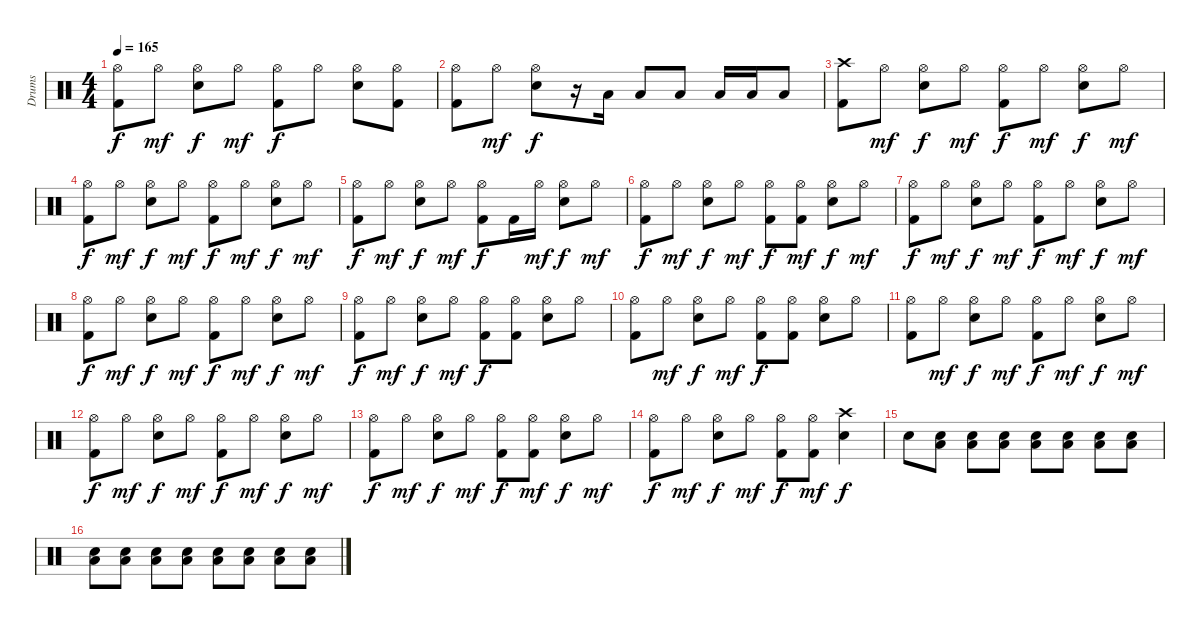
\track ("Drums" "Drums") {instrument percussion}
\staff {score}
\articulation defaults
\ts (4 4)
\tempo 165
\clef neutral
\ks c
("Hi-Hat (open)" "Kick (hit) 2").8{dy f} "Hi-Hat (open)".8{dy mf} ("Hi-Hat (open)" "Electric Snare (hit)").8{dy f} "Hi-Hat (open)".8{dy mf} ("Hi-Hat (open)" "Kick (hit) 2").8{dy f} "Hi-Hat (open)".8 ("Hi-Hat (open)" "Electric Snare (hit)").8 ("Hi-Hat (open)" "Kick (hit) 2").8 |
("Hi-Hat (open)" "Kick (hit) 2").8 "Hi-Hat (open)".8{dy mf} ("Hi-Hat (open)" "Electric Snare (hit)").8{dy f} r.16 "Low Floor Tom (hit)".16 "Low Floor Tom (hit)".8 "Low Floor Tom (hit)".8 "Low Floor Tom (hit)".16 "Low Floor Tom (hit)".16 "Low Floor Tom (hit)".8 |
("Crash high (hit)" "Kick (hit) 2").8 "Hi-Hat (open)".8{dy mf} ("Hi-Hat (open)" "Electric Snare (hit)").8{dy f} "Hi-Hat (open)".8{dy mf} ("Hi-Hat (open)" "Kick (hit) 2").8{dy f} "Hi-Hat (open)".8{dy mf} ("Hi-Hat (open)" "Electric Snare (hit)").8{dy f} "Hi-Hat (open)".8{dy mf} |
("Hi-Hat (open)" "Kick (hit) 2").8{dy f} "Hi-Hat (open)".8{dy mf} ("Hi-Hat (open)" "Electric Snare (hit)").8{dy f} "Hi-Hat (open)".8{dy mf} ("Hi-Hat (open)" "Kick (hit) 2").8{dy f} "Hi-Hat (open)".8{dy mf} ("Hi-Hat (open)" "Electric Snare (hit)").8{dy f} "Hi-Hat (open)".8{dy mf} |
("Hi-Hat (open)" "Kick (hit) 2").8{dy f} "Hi-Hat (open)".8{dy mf} ("Hi-Hat (open)" "Electric Snare (hit)").8{dy f} "Hi-Hat (open)".8{dy mf} ("Hi-Hat (open)" "Kick (hit) 2").8{dy f} "Kick (hit) 2".16 "Hi-Hat (open)".16{dy mf} ("Hi-Hat (open)" "Electric Snare (hit)").8{dy f} "Hi-Hat (open)".8{dy mf} |
("Hi-Hat (open)" "Kick (hit) 2").8{dy f} "Hi-Hat (open)".8{dy mf} ("Hi-Hat (open)" "Electric Snare (hit)").8{dy f} "Hi-Hat (open)".8{dy mf} ("Hi-Hat (open)" "Kick (hit) 2").8{dy f} ("Hi-Hat (open)" "Kick (hit) 2").8{dy mf} ("Hi-Hat (open)" "Electric Snare (hit)").8{dy f} "Hi-Hat (open)".8{dy mf} |
("Hi-Hat (open)" "Kick (hit) 2").8{dy f} "Hi-Hat (open)".8{dy mf} ("Hi-Hat (open)" "Electric Snare (hit)").8{dy f} "Hi-Hat (open)".8{dy mf} ("Hi-Hat (open)" "Kick (hit) 2").8{dy f} "Hi-Hat (open)".8{dy mf} ("Hi-Hat (open)" "Electric Snare (hit)").8{dy f} "Hi-Hat (open)".8{dy mf} |
("Hi-Hat (open)" "Kick (hit) 2").8{dy f} "Hi-Hat (open)".8{dy mf} ("Hi-Hat (open)" "Electric Snare (hit)").8{dy f} "Hi-Hat (open)".8{dy mf} ("Hi-Hat (open)" "Kick (hit) 2").8{dy f} "Hi-Hat (open)".8{dy mf} ("Hi-Hat (open)" "Electric Snare (hit)").8{dy f} "Hi-Hat (open)".8{dy mf} |
("Hi-Hat (open)" "Kick (hit) 2").8{dy f} "Hi-Hat (open)".8{dy mf} ("Hi-Hat (open)" "Electric Snare (hit)").8{dy f} "Hi-Hat (open)".8{dy mf} ("Hi-Hat (open)" "Kick (hit) 2").8{dy f} ("Hi-Hat (open)" "Kick (hit) 2").8 ("Hi-Hat (open)" "Electric Snare (hit)").8 "Hi-Hat (open)".8 |
("Hi-Hat (open)" "Kick (hit) 2").8 "Hi-Hat (open)".8{dy mf} ("Hi-Hat (open)" "Electric Snare (hit)").8{dy f} "Hi-Hat (open)".8{dy mf} ("Hi-Hat (open)" "Kick (hit) 2").8{dy f} ("Hi-Hat (open)" "Kick (hit) 2").8 ("Hi-Hat (open)" "Electric Snare (hit)").8 "Hi-Hat (open)".8 |
("Hi-Hat (open)" "Kick (hit) 2").8 "Hi-Hat (open)".8{dy mf} ("Hi-Hat (open)" "Electric Snare (hit)").8{dy f} "Hi-Hat (open)".8{dy mf} ("Hi-Hat (open)" "Kick (hit) 2").8{dy f} "Hi-Hat (open)".8{dy mf} ("Hi-Hat (open)" "Electric Snare (hit)").8{dy f} "Hi-Hat (open)".8{dy mf} |
("Hi-Hat (open)" "Kick (hit) 2").8{dy f} "Hi-Hat (open)".8{dy mf} ("Hi-Hat (open)" "Electric Snare (hit)").8{dy f} "Hi-Hat (open)".8{dy mf} ("Hi-Hat (open)" "Kick (hit) 2").8{dy f} "Hi-Hat (open)".8{dy mf} ("Hi-Hat (open)" "Electric Snare (hit)").8{dy f} "Hi-Hat (open)".8{dy mf} |
("Hi-Hat (open)" "Kick (hit) 2").8{dy f} "Hi-Hat (open)".8{dy mf} ("Hi-Hat (open)" "Electric Snare (hit)").8{dy f} "Hi-Hat (open)".8{dy mf} ("Hi-Hat (open)" "Kick (hit) 2").8{dy f} ("Hi-Hat (open)" "Kick (hit) 2").8{dy mf} ("Hi-Hat (open)" "Electric Snare (hit)").8{dy f} "Hi-Hat (open)".8{dy mf} |
("Hi-Hat (open)" "Kick (hit) 2").8{dy f} "Hi-Hat (open)".8{dy mf} ("Hi-Hat (open)" "Electric Snare (hit)").8{dy f} "Hi-Hat (open)".8{dy mf} ("Hi-Hat (open)" "Kick (hit) 2").8{dy f} ("Hi-Hat (open)" "Kick (hit) 2").8{dy mf} ("Crash high (hit)" "Electric Snare (hit)").4{dy f} |
"Electric Snare (hit)".8 ("Electric Snare (hit)" "Low Floor Tom (hit)").8 ("Electric Snare (hit)" "Low Floor Tom (hit)").8 ("Electric Snare (hit)" "Low Floor Tom (hit)").8 ("Electric Snare (hit)" "Low Floor Tom (hit)").8 ("Electric Snare (hit)" "Low Floor Tom (hit)").8 ("Electric Snare (hit)" "Low Floor Tom (hit)").8 ("Electric Snare (hit)" "Low Floor Tom (hit)").8 |
("Electric Snare (hit)" "Low Floor Tom (hit)").8 ("Electric Snare (hit)" "Low Floor Tom (hit)").8 ("Electric Snare (hit)" "Low Floor Tom (hit)").8 ("Electric Snare (hit)" "Low Floor Tom (hit)").8 ("Electric Snare (hit)" "Low Floor Tom (hit)").8 ("Electric Snare (hit)" "Low Floor Tom (hit)").8 ("Electric Snare (hit)" "Low Floor Tom (hit)").8 ("Electric Snare (hit)" "Low Floor Tom (hit)").8
